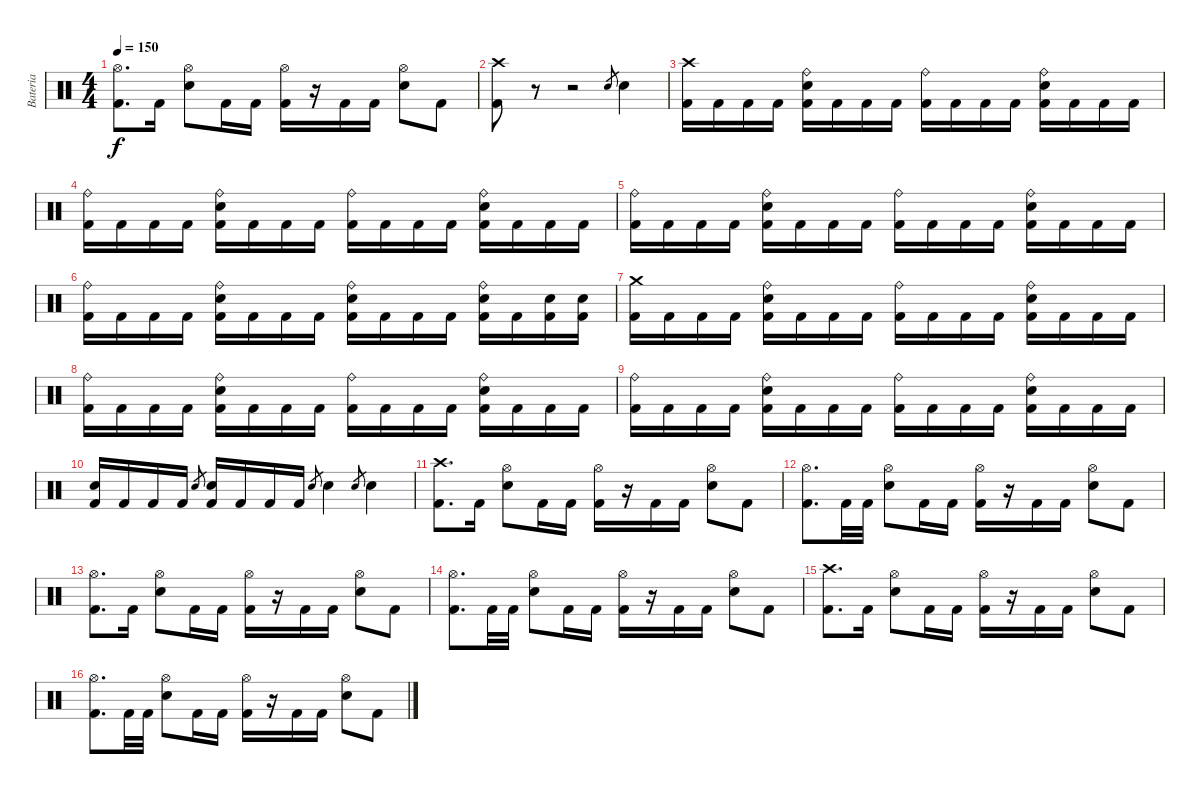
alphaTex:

\track ("Bateria" "Bateria") {instrument percussion}
\staff {score}
\articulation defaults
\ts (4 4)
\tempo 150
\clef neutral
\ks c
("Hi-Hat (open)" "Kick (hit) 2").8{d dy f} "Kick (hit) 2".16 ("Hi-Hat (open)" "Snare (hit) 2").8 "Kick (hit) 2".16 "Kick (hit) 2".16 ("Hi-Hat (open)" "Kick (hit) 2").16 r.16 "Kick (hit) 2".16 "Kick (hit) 2".16 ("Hi-Hat (open)" "Snare (hit) 2").8 "Kick (hit) 2".8 |
("Crash high (hit)" "Kick (hit) 2").8 r.8 r.2 "Snare (hit) 2".8{gr} "Snare (hit) 2".4 |
("Crash high (hit)" "Kick (hit) 2").16 "Kick (hit) 2".16 "Kick (hit) 2".16 "Kick (hit) 2".16 ("Ride (bell)" "Snare (hit) 2" "Kick (hit) 2").16 "Kick (hit) 2".16 "Kick (hit) 2".16 "Kick (hit) 2".16 ("Ride (bell)" "Kick (hit) 2").16 "Kick (hit) 2".16 "Kick (hit) 2".16 "Kick (hit) 2".16 ("Ride (bell)" "Snare (hit) 2" "Kick (hit) 2").16 "Kick (hit) 2".16 "Kick (hit) 2".16 "Kick (hit) 2".16 |
("Ride (bell)" "Kick (hit) 2").16 "Kick (hit) 2".16 "Kick (hit) 2".16 "Kick (hit) 2".16 ("Ride (bell)" "Snare (hit) 2" "Kick (hit) 2").16 "Kick (hit) 2".16 "Kick (hit) 2".16 "Kick (hit) 2".16 ("Ride (bell)" "Kick (hit) 2").16 "Kick (hit) 2".16 "Kick (hit) 2".16 "Kick (hit) 2".16 ("Ride (bell)" "Snare (hit) 2" "Kick (hit) 2").16 "Kick (hit) 2".16 "Kick (hit) 2".16 "Kick (hit) 2".16 |
("Ride (bell)" "Kick (hit) 2").16 "Kick (hit) 2".16 "Kick (hit) 2".16 "Kick (hit) 2".16 ("Ride (bell)" "Snare (hit) 2" "Kick (hit) 2").16 "Kick (hit) 2".16 "Kick (hit) 2".16 "Kick (hit) 2".16 ("Ride (bell)" "Kick (hit) 2").16 "Kick (hit) 2".16 "Kick (hit) 2".16 "Kick (hit) 2".16 ("Ride (bell)" "Snare (hit) 2" "Kick (hit) 2").16 "Kick (hit) 2".16 "Kick (hit) 2".16 "Kick (hit) 2".16 |
("Ride (bell)" "Kick (hit) 2").16 "Kick (hit) 2".16 "Kick (hit) 2".16 "Kick (hit) 2".16 ("Ride (bell)" "Snare (hit) 2" "Kick (hit) 2").16 "Kick (hit) 2".16 "Kick (hit) 2".16 "Kick (hit) 2".16 ("Ride (bell)" "Snare (hit) 2" "Kick (hit) 2").16 "Kick (hit) 2".16 "Kick (hit) 2".16 "Kick (hit) 2".16 ("Ride (bell)" "Snare (hit) 2" "Kick (hit) 2").16 "Kick (hit) 2".16 ("Snare (hit) 2" "Kick (hit) 2").16 ("Snare (hit) 2" "Kick (hit) 2").16 |
("Crash medium (hit)" "Kick (hit) 2").16 "Kick (hit) 2".16 "Kick (hit) 2".16 "Kick (hit) 2".16 ("Ride (bell)" "Snare (hit) 2" "Kick (hit) 2").16 "Kick (hit) 2".16 "Kick (hit) 2".16 "Kick (hit) 2".16 ("Ride (bell)" "Kick (hit) 2").16 "Kick (hit) 2".16 "Kick (hit) 2".16 "Kick (hit) 2".16 ("Ride (bell)" "Snare (hit) 2" "Kick (hit) 2").16 "Kick (hit) 2".16 "Kick (hit) 2".16 "Kick (hit) 2".16 |
("Ride (bell)" "Kick (hit) 2").16 "Kick (hit) 2".16 "Kick (hit) 2".16 "Kick (hit) 2".16 ("Ride (bell)" "Snare (hit) 2" "Kick (hit) 2").16 "Kick (hit) 2".16 "Kick (hit) 2".16 "Kick (hit) 2".16 ("Ride (bell)" "Kick (hit) 2").16 "Kick (hit) 2".16 "Kick (hit) 2".16 "Kick (hit) 2".16 ("Ride (bell)" "Snare (hit) 2" "Kick (hit) 2").16 "Kick (hit) 2".16 "Kick (hit) 2".16 "Kick (hit) 2".16 |
("Ride (bell)" "Kick (hit) 2").16 "Kick (hit) 2".16 "Kick (hit) 2".16 "Kick (hit) 2".16 ("Ride (bell)" "Snare (hit) 2" "Kick (hit) 2").16 "Kick (hit) 2".16 "Kick (hit) 2".16 "Kick (hit) 2".16 ("Ride (bell)" "Kick (hit) 2").16 "Kick (hit) 2".16 "Kick (hit) 2".16 "Kick (hit) 2".16 ("Ride (bell)" "Snare (hit) 2" "Kick (hit) 2").16 "Kick (hit) 2".16 "Kick (hit) 2".16 "Kick (hit) 2".16 |
("Snare (hit) 2" "Kick (hit) 2").16 "Kick (hit) 2".16 "Kick (hit) 2".16 "Kick (hit) 2".16 "Snare (hit) 2".8{gr} ("Snare (hit) 2" "Kick (hit) 2").16 "Kick (hit) 2".16 "Kick (hit) 2".16 "Kick (hit) 2".16 "Snare (hit) 2".8{gr} "Snare (hit) 2".4 "Snare (hit) 2".8{gr} "Snare (hit) 2".4 |
("Crash high (hit)" "Kick (hit) 2").8{d} "Kick (hit) 2".16 ("Hi-Hat (open)" "Snare (hit) 2").8 "Kick (hit) 2".16 "Kick (hit) 2".16 ("Hi-Hat (open)" "Kick (hit) 2").16 r.16 "Kick (hit) 2".16 "Kick (hit) 2".16 ("Hi-Hat (open)" "Snare (hit) 2").8 "Kick (hit) 2".8 |
("Hi-Hat (open)" "Kick (hit) 2").8{d} "Kick (hit) 2".32 "Kick (hit) 2".32 ("Hi-Hat (open)" "Snare (hit) 2").8 "Kick (hit) 2".16 "Kick (hit) 2".16 ("Hi-Hat (open)" "Kick (hit) 2").16 r.16 "Kick (hit) 2".16 "Kick (hit) 2".16 ("Hi-Hat (open)" "Snare (hit) 2").8 "Kick (hit) 2".8 |
("Hi-Hat (open)" "Kick (hit) 2").8{d} "Kick (hit) 2".16 ("Hi-Hat (open)" "Snare (hit) 2").8 "Kick (hit) 2".16 "Kick (hit) 2".16 ("Hi-Hat (open)" "Kick (hit) 2").16 r.16 "Kick (hit) 2".16 "Kick (hit) 2".16 ("Hi-Hat (open)" "Snare (hit) 2").8 "Kick (hit) 2".8 |
("Hi-Hat (open)" "Kick (hit) 2").8{d} "Kick (hit) 2".32 "Kick (hit) 2".32 ("Hi-Hat (open)" "Snare (hit) 2").8 "Kick (hit) 2".16 "Kick (hit) 2".16 ("Hi-Hat (open)" "Kick (hit) 2").16 r.16 "Kick (hit) 2".16 "Kick (hit) 2".16 ("Hi-Hat (open)" "Snare (hit) 2").8 "Kick (hit) 2".8 |
("Crash high (hit)" "Kick (hit) 2").8{d} "Kick (hit) 2".16 ("Hi-Hat (open)" "Snare (hit) 2").8 "Kick (hit) 2".16 "Kick (hit) 2".16 ("Hi-Hat (open)" "Kick (hit) 2").16 r.16 "Kick (hit) 2".16 "Kick (hit) 2".16 ("Hi-Hat (open)" "Snare (hit) 2").8 "Kick (hit) 2".8 |
("Hi-Hat (open)" "Kick (hit) 2").8{d} "Kick (hit) 2".32 "Kick (hit) 2".32 ("Hi-Hat (open)" "Snare (hit) 2").8 "Kick (hit) 2".16 "Kick (hit) 2".16 ("Hi-Hat (open)" "Kick (hit) 2").16 r.16 "Kick (hit) 2".16 "Kick (hit) 2".16 ("Hi-Hat (open)" "Snare (hit) 2").8 "Kick (hit) 2".8
